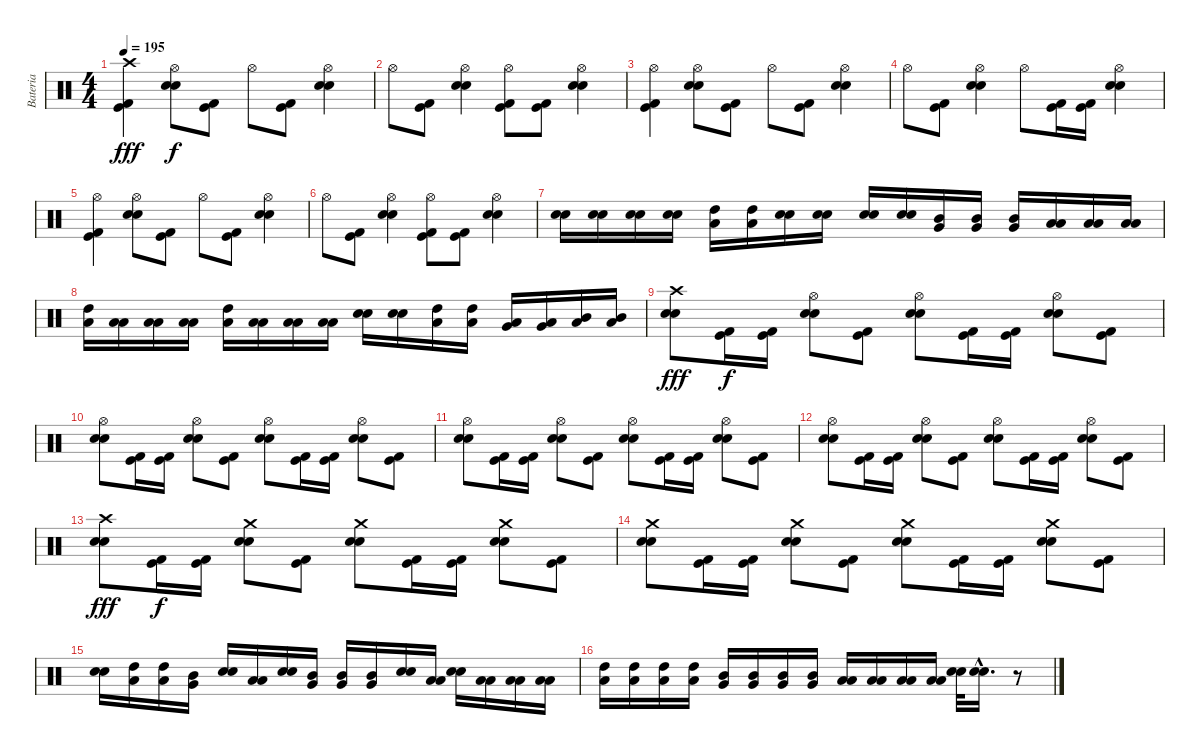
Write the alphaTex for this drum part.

\track ("Bateria" "Bateria") {instrument percussion}
\staff {score}
\articulation defaults
\ts (4 4)
\tempo 195
\clef neutral
\ks c
("Crash high (hit)" "Kick (hit) 2" "Kick (hit)").4{dy fff} ("Hi-Hat (open)" "Electric Snare (hit)" "Snare (hit) 2").8{dy f} ("Kick (hit) 2" "Kick (hit)").8 "Hi-Hat (open)".8 ("Kick (hit) 2" "Kick (hit)").8 ("Hi-Hat (open)" "Electric Snare (hit)" "Snare (hit) 2").4 |
"Hi-Hat (open)".8 ("Kick (hit) 2" "Kick (hit)").8 ("Hi-Hat (open)" "Electric Snare (hit)" "Snare (hit) 2").4 ("Hi-Hat (open)" "Kick (hit) 2" "Kick (hit)").8 ("Kick (hit) 2" "Kick (hit)").8 ("Hi-Hat (open)" "Electric Snare (hit)" "Snare (hit) 2").4 |
("Hi-Hat (open)" "Kick (hit) 2" "Kick (hit)").4 ("Hi-Hat (open)" "Electric Snare (hit)" "Snare (hit) 2").8 ("Kick (hit) 2" "Kick (hit)").8 "Hi-Hat (open)".8 ("Kick (hit) 2" "Kick (hit)").8 ("Hi-Hat (open)" "Electric Snare (hit)" "Snare (hit) 2").4 |
"Hi-Hat (open)".8 ("Kick (hit) 2" "Kick (hit)").8 ("Hi-Hat (open)" "Electric Snare (hit)" "Snare (hit) 2").4 "Hi-Hat (open)".8 ("Kick (hit) 2" "Kick (hit)").16 ("Kick (hit) 2" "Kick (hit)").16 ("Hi-Hat (open)" "Electric Snare (hit)" "Snare (hit) 2").4 |
("Hi-Hat (open)" "Kick (hit) 2" "Kick (hit)").4 ("Hi-Hat (open)" "Electric Snare (hit)" "Snare (hit) 2").8 ("Kick (hit) 2" "Kick (hit)").8 "Hi-Hat (open)".8 ("Kick (hit) 2" "Kick (hit)").8 ("Hi-Hat (open)" "Electric Snare (hit)" "Snare (hit) 2").4 |
"Hi-Hat (open)".8 ("Kick (hit) 2" "Kick (hit)").8 ("Hi-Hat (open)" "Electric Snare (hit)" "Snare (hit) 2").4 ("Hi-Hat (open)" "Kick (hit) 2" "Kick (hit)").8 ("Kick (hit) 2" "Kick (hit)").8 ("Hi-Hat (open)" "Electric Snare (hit)" "Snare (hit) 2").4 |
("Electric Snare (hit)" "Snare (hit) 2").16 ("Electric Snare (hit)" "Snare (hit) 2").16 ("Electric Snare (hit)" "Snare (hit) 2").16 ("Electric Snare (hit)" "Snare (hit) 2").16 ("High Tom (hit)" "Low Tom (hit)").16 ("High Tom (hit)" "Low Tom (hit)").16 ("Electric Snare (hit)" "Snare (hit) 2").16 ("Electric Snare (hit)" "Snare (hit) 2").16 ("Electric Snare (hit)" "Snare (hit) 2").16 ("Electric Snare (hit)" "Snare (hit) 2").16 ("Mid Tom (hit)" "Very Low Tom (hit)").16 ("Mid Tom (hit)" "Very Low Tom (hit)").16 ("Mid Tom (hit)" "Very Low Tom (hit)").16 ("Low Tom (hit)" "Low Floor Tom (hit)").16 ("Low Tom (hit)" "Low Floor Tom (hit)").16 ("Low Tom (hit)" "Low Floor Tom (hit)").16 |
("High Tom (hit)" "Low Tom (hit)").16 ("Low Tom (hit)" "Low Floor Tom (hit)").16 ("Low Tom (hit)" "Low Floor Tom (hit)").16 ("Low Tom (hit)" "Low Floor Tom (hit)").16 ("High Tom (hit)" "Low Tom (hit)").16 ("Low Tom (hit)" "Low Floor Tom (hit)").16 ("Low Tom (hit)" "Low Floor Tom (hit)").16 ("Low Tom (hit)" "Low Floor Tom (hit)").16 ("Electric Snare (hit)" "Snare (hit) 2").16 ("Electric Snare (hit)" "Snare (hit) 2").16 ("High Tom (hit)" "Low Tom (hit)").16 ("High Tom (hit)" "Low Tom (hit)").16 ("Very Low Tom (hit)" "Low Tom (hit)").16 ("Very Low Tom (hit)" "Low Tom (hit)").16 ("Mid Tom (hit)" "Low Tom (hit)").16 ("Mid Tom (hit)" "Low Floor Tom (hit)").16 |
("Crash high (hit)" "Electric Snare (hit)" "Snare (hit) 2").8{dy fff} ("Kick (hit) 2" "Kick (hit)").16{dy f} ("Kick (hit) 2" "Kick (hit)").16 ("Hi-Hat (open)" "Electric Snare (hit)" "Snare (hit) 2").8 ("Kick (hit) 2" "Kick (hit)").8 ("Hi-Hat (open)" "Electric Snare (hit)" "Snare (hit) 2").8 ("Kick (hit) 2" "Kick (hit)").16 ("Kick (hit) 2" "Kick (hit)").16 ("Hi-Hat (open)" "Electric Snare (hit)" "Snare (hit) 2").8 ("Kick (hit) 2" "Kick (hit)").8 |
("Hi-Hat (open)" "Electric Snare (hit)" "Snare (hit) 2").8 ("Kick (hit) 2" "Kick (hit)").16 ("Kick (hit) 2" "Kick (hit)").16 ("Hi-Hat (open)" "Electric Snare (hit)" "Snare (hit) 2").8 ("Kick (hit) 2" "Kick (hit)").8 ("Hi-Hat (open)" "Electric Snare (hit)" "Snare (hit) 2").8 ("Kick (hit) 2" "Kick (hit)").16 ("Kick (hit) 2" "Kick (hit)").16 ("Hi-Hat (open)" "Electric Snare (hit)" "Snare (hit) 2").8 ("Kick (hit) 2" "Kick (hit)").8 |
("Hi-Hat (open)" "Electric Snare (hit)" "Snare (hit) 2").8 ("Kick (hit) 2" "Kick (hit)").16 ("Kick (hit) 2" "Kick (hit)").16 ("Hi-Hat (open)" "Electric Snare (hit)" "Snare (hit) 2").8 ("Kick (hit) 2" "Kick (hit)").8 ("Hi-Hat (open)" "Electric Snare (hit)" "Snare (hit) 2").8 ("Kick (hit) 2" "Kick (hit)").16 ("Kick (hit) 2" "Kick (hit)").16 ("Hi-Hat (open)" "Electric Snare (hit)" "Snare (hit) 2").8 ("Kick (hit) 2" "Kick (hit)").8 |
("Hi-Hat (open)" "Electric Snare (hit)" "Snare (hit) 2").8 ("Kick (hit) 2" "Kick (hit)").16 ("Kick (hit) 2" "Kick (hit)").16 ("Hi-Hat (open)" "Electric Snare (hit)" "Snare (hit) 2").8 ("Kick (hit) 2" "Kick (hit)").8 ("Hi-Hat (open)" "Electric Snare (hit)" "Snare (hit) 2").8 ("Kick (hit) 2" "Kick (hit)").16 ("Kick (hit) 2" "Kick (hit)").16 ("Hi-Hat (open)" "Electric Snare (hit)" "Snare (hit) 2").8 ("Kick (hit) 2" "Kick (hit)").8 |
("Crash high (hit)" "Electric Snare (hit)" "Snare (hit) 2").8{dy fff} ("Kick (hit) 2" "Kick (hit)").16{dy f} ("Kick (hit) 2" "Kick (hit)").16 ("Crash medium (hit)" "Electric Snare (hit)" "Snare (hit) 2").8 ("Kick (hit) 2" "Kick (hit)").8 ("Crash medium (hit)" "Electric Snare (hit)" "Snare (hit) 2").8 ("Kick (hit) 2" "Kick (hit)").16 ("Kick (hit) 2" "Kick (hit)").16 ("Crash medium (hit)" "Electric Snare (hit)" "Snare (hit) 2").8 ("Kick (hit) 2" "Kick (hit)").8 |
("Crash medium (hit)" "Electric Snare (hit)" "Snare (hit) 2").8 ("Kick (hit) 2" "Kick (hit)").16 ("Kick (hit) 2" "Kick (hit)").16 ("Crash medium (hit)" "Electric Snare (hit)" "Snare (hit) 2").8 ("Kick (hit) 2" "Kick (hit)").8 ("Crash medium (hit)" "Electric Snare (hit)" "Snare (hit) 2").8 ("Kick (hit) 2" "Kick (hit)").16 ("Kick (hit) 2" "Kick (hit)").16 ("Crash medium (hit)" "Electric Snare (hit)" "Snare (hit) 2").8 ("Kick (hit) 2" "Kick (hit)").8 |
("Electric Snare (hit)" "Snare (hit) 2").16 ("High Tom (hit)" "Low Tom (hit)").16 ("High Tom (hit)" "Low Tom (hit)").16 ("Mid Tom (hit)" "Very Low Tom (hit)").16 ("Electric Snare (hit)" "Snare (hit) 2").16 ("Low Tom (hit)" "Low Floor Tom (hit)").16 ("Electric Snare (hit)" "Snare (hit) 2").16 ("Mid Tom (hit)" "Very Low Tom (hit)").16 ("Mid Tom (hit)" "Very Low Tom (hit)").16 ("Mid Tom (hit)" "Very Low Tom (hit)").16 ("Electric Snare (hit)" "Snare (hit) 2").16 ("Low Tom (hit)" "Low Floor Tom (hit)").16 ("Electric Snare (hit)" "Snare (hit) 2").16 ("Low Tom (hit)" "Low Floor Tom (hit)").16 ("Low Tom (hit)" "Low Floor Tom (hit)").16 ("Low Tom (hit)" "Low Floor Tom (hit)").16 |
("High Tom (hit)" "Low Tom (hit)").16 ("High Tom (hit)" "Low Tom (hit)").16 ("High Tom (hit)" "Low Tom (hit)").16 ("High Tom (hit)" "Low Tom (hit)").16 ("Mid Tom (hit)" "Very Low Tom (hit)").16 ("Mid Tom (hit)" "Very Low Tom (hit)").16 ("Mid Tom (hit)" "Very Low Tom (hit)").16 ("Mid Tom (hit)" "Very Low Tom (hit)").16 ("Low Tom (hit)" "Low Floor Tom (hit)").16 ("Low Tom (hit)" "Low Floor Tom (hit)").16 ("Low Tom (hit)" "Low Floor Tom (hit)").16 ("Low Tom (hit)" "Low Floor Tom (hit)").16 ("Electric Snare (hit)" "Snare (hit) 2").32 ("Electric Snare (hit)"{hac} "Snare (hit) 2"{hac}).16{d} r.8
